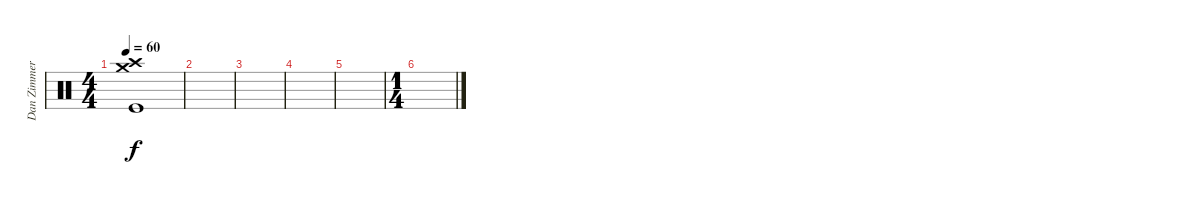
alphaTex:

\track ("Dan Zimmerman" "Dan Zimmer") {instrument percussion}
\staff {score}
\articulation defaults
\ts (4 4)
\tempo 60
\clef neutral
\ks c
("Crash high (hit)" "Crash medium (hit)" "Kick (hit)").1{dy f} |
|
|
|
|
\ts (1 4)
